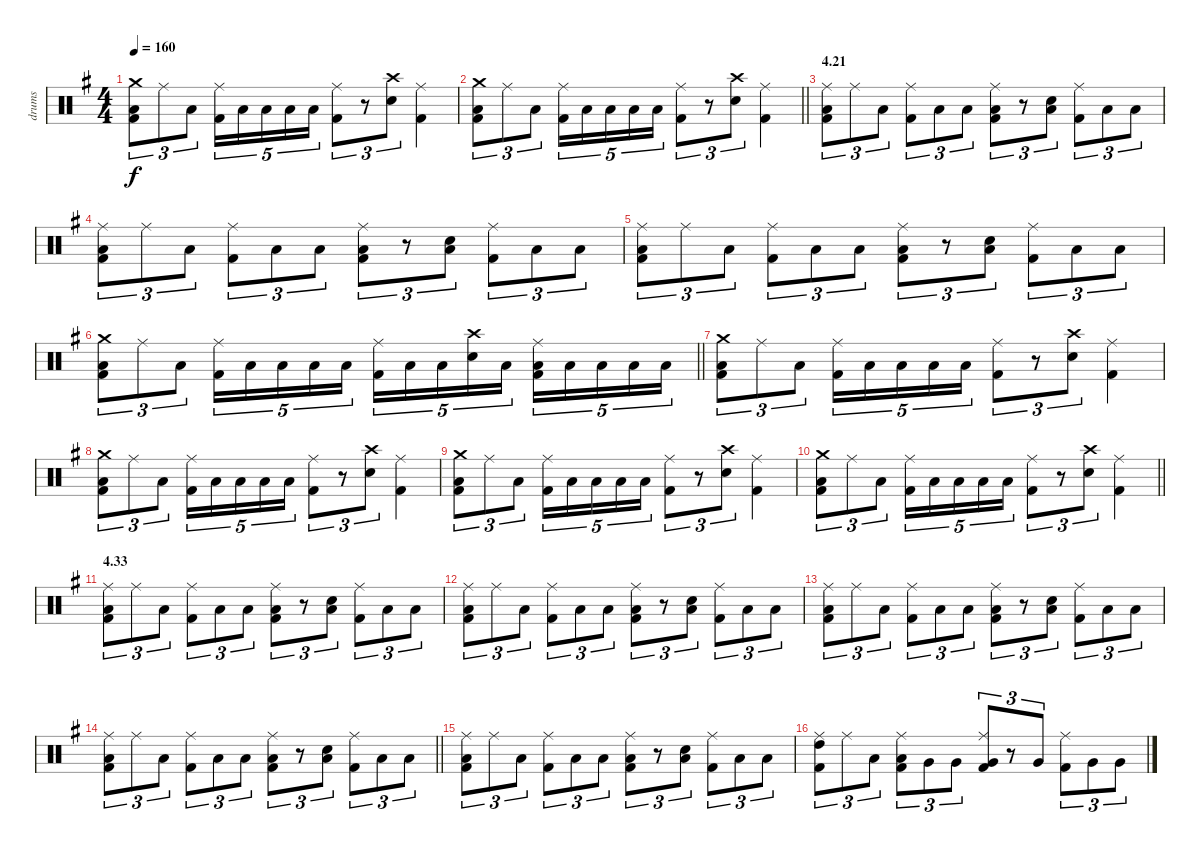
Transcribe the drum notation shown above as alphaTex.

\track ("drums" "drums") {instrument percussion}
\staff {score}
\articulation defaults
\ts (4 4)
\tempo 160
\clef neutral
\ks g
("Crash medium (hit)" "Low Tom (hit)" "Kick (hit) 2").8{tu (3 2) dy f} "Ride (middle)".8{tu (3 2)} "Low Tom (hit)".8{tu (3 2)} ("Ride (middle)" "Kick (hit) 2").16{tu (5 4)} "Low Tom (hit)".16{tu (5 4)} "Low Tom (hit)".16{tu (5 4)} "Low Tom (hit)".16{tu (5 4)} "Low Tom (hit)".16{tu (5 4)} ("Ride (middle)" "Kick (hit) 2").8{tu (3 2)} r.8{tu (3 2)} ("Crash high (hit)" "Electric Snare (hit)").8{tu (3 2)} ("Ride (middle)" "Kick (hit) 2").4 |
\barLineRight lightlight
("Crash medium (hit)" "Low Tom (hit)" "Kick (hit) 2").8{tu (3 2)} "Ride (middle)".8{tu (3 2)} "Low Tom (hit)".8{tu (3 2)} ("Ride (middle)" "Kick (hit) 2").16{tu (5 4)} "Low Tom (hit)".16{tu (5 4)} "Low Tom (hit)".16{tu (5 4)} "Low Tom (hit)".16{tu (5 4)} "Low Tom (hit)".16{tu (5 4)} ("Ride (middle)" "Kick (hit) 2").8{tu (3 2)} r.8{tu (3 2)} ("Crash high (hit)" "Electric Snare (hit)").8{tu (3 2)} ("Ride (middle)" "Kick (hit) 2").4 |
\section ("" "4.21")
("Ride (middle)" "Low Tom (hit)" "Kick (hit) 2").8{tu (3 2)} "Ride (middle)".8{tu (3 2)} "Low Tom (hit)".8{tu (3 2)} ("Ride (middle)" "Kick (hit) 2").8{tu (3 2)} "Low Tom (hit)".8{tu (3 2)} "Low Tom (hit)".8{tu (3 2)} ("Ride (middle)" "Low Tom (hit)" "Kick (hit) 2").8{tu (3 2)} r.8{tu (3 2)} ("Low Tom (hit)" "Electric Snare (hit)").8{tu (3 2)} ("Ride (middle)" "Kick (hit) 2").8{tu (3 2)} "Low Tom (hit)".8{tu (3 2)} "Low Tom (hit)".8{tu (3 2)} |
("Ride (middle)" "Low Tom (hit)" "Kick (hit) 2").8{tu (3 2)} "Ride (middle)".8{tu (3 2)} "Low Tom (hit)".8{tu (3 2)} ("Ride (middle)" "Kick (hit) 2").8{tu (3 2)} "Low Tom (hit)".8{tu (3 2)} "Low Tom (hit)".8{tu (3 2)} ("Ride (middle)" "Low Tom (hit)" "Kick (hit) 2").8{tu (3 2)} r.8{tu (3 2)} ("Low Tom (hit)" "Electric Snare (hit)").8{tu (3 2)} ("Ride (middle)" "Kick (hit) 2").8{tu (3 2)} "Low Tom (hit)".8{tu (3 2)} "Low Tom (hit)".8{tu (3 2)} |
("Ride (middle)" "Low Tom (hit)" "Kick (hit) 2").8{tu (3 2)} "Ride (middle)".8{tu (3 2)} "Low Tom (hit)".8{tu (3 2)} ("Ride (middle)" "Kick (hit) 2").8{tu (3 2)} "Low Tom (hit)".8{tu (3 2)} "Low Tom (hit)".8{tu (3 2)} ("Ride (middle)" "Low Tom (hit)" "Kick (hit) 2").8{tu (3 2)} r.8{tu (3 2)} ("Low Tom (hit)" "Electric Snare (hit)").8{tu (3 2)} ("Ride (middle)" "Kick (hit) 2").8{tu (3 2)} "Low Tom (hit)".8{tu (3 2)} "Low Tom (hit)".8{tu (3 2)} |
\barLineRight lightlight
("Crash medium (hit)" "Low Tom (hit)" "Kick (hit) 2").8{tu (3 2)} "Ride (middle)".8{tu (3 2)} "Low Tom (hit)".8{tu (3 2)} ("Ride (middle)" "Kick (hit) 2").16{tu (5 4)} "Low Tom (hit)".16{tu (5 4)} "Low Tom (hit)".16{tu (5 4)} "Low Tom (hit)".16{tu (5 4)} "Low Tom (hit)".16{tu (5 4)} ("Ride (middle)" "Kick (hit) 2").16{tu (5 4)} "Low Tom (hit)".16{tu (5 4)} "Low Tom (hit)".16{tu (5 4)} ("Crash high (hit)" "Electric Snare (hit)").16{tu (5 4)} "Low Tom (hit)".16{tu (5 4)} ("Ride (middle)" "Low Tom (hit)" "Kick (hit) 2").16{tu (5 4)} "Low Tom (hit)".16{tu (5 4)} "Low Tom (hit)".16{tu (5 4)} "Low Tom (hit)".16{tu (5 4)} "Low Tom (hit)".16{tu (5 4)} |
("Crash medium (hit)" "Low Tom (hit)" "Kick (hit) 2").8{tu (3 2)} "Ride (middle)".8{tu (3 2)} "Low Tom (hit)".8{tu (3 2)} ("Ride (middle)" "Kick (hit) 2").16{tu (5 4)} "Low Tom (hit)".16{tu (5 4)} "Low Tom (hit)".16{tu (5 4)} "Low Tom (hit)".16{tu (5 4)} "Low Tom (hit)".16{tu (5 4)} ("Ride (middle)" "Kick (hit) 2").8{tu (3 2)} r.8{tu (3 2)} ("Crash high (hit)" "Electric Snare (hit)").8{tu (3 2)} ("Ride (middle)" "Kick (hit) 2").4 |
("Crash medium (hit)" "Low Tom (hit)" "Kick (hit) 2").8{tu (3 2)} "Ride (middle)".8{tu (3 2)} "Low Tom (hit)".8{tu (3 2)} ("Ride (middle)" "Kick (hit) 2").16{tu (5 4)} "Low Tom (hit)".16{tu (5 4)} "Low Tom (hit)".16{tu (5 4)} "Low Tom (hit)".16{tu (5 4)} "Low Tom (hit)".16{tu (5 4)} ("Ride (middle)" "Kick (hit) 2").8{tu (3 2)} r.8{tu (3 2)} ("Crash high (hit)" "Electric Snare (hit)").8{tu (3 2)} ("Ride (middle)" "Kick (hit) 2").4 |
("Crash medium (hit)" "Low Tom (hit)" "Kick (hit) 2").8{tu (3 2)} "Ride (middle)".8{tu (3 2)} "Low Tom (hit)".8{tu (3 2)} ("Ride (middle)" "Kick (hit) 2").16{tu (5 4)} "Low Tom (hit)".16{tu (5 4)} "Low Tom (hit)".16{tu (5 4)} "Low Tom (hit)".16{tu (5 4)} "Low Tom (hit)".16{tu (5 4)} ("Ride (middle)" "Kick (hit) 2").8{tu (3 2)} r.8{tu (3 2)} ("Crash high (hit)" "Electric Snare (hit)").8{tu (3 2)} ("Ride (middle)" "Kick (hit) 2").4 |
\barLineRight lightlight
("Crash medium (hit)" "Low Tom (hit)" "Kick (hit) 2").8{tu (3 2)} "Ride (middle)".8{tu (3 2)} "Low Tom (hit)".8{tu (3 2)} ("Ride (middle)" "Kick (hit) 2").16{tu (5 4)} "Low Tom (hit)".16{tu (5 4)} "Low Tom (hit)".16{tu (5 4)} "Low Tom (hit)".16{tu (5 4)} "Low Tom (hit)".16{tu (5 4)} ("Ride (middle)" "Kick (hit) 2").8{tu (3 2)} r.8{tu (3 2)} ("Crash high (hit)" "Electric Snare (hit)").8{tu (3 2)} ("Ride (middle)" "Kick (hit) 2").4 |
\section ("" "4.33")
("Ride (middle)" "Low Tom (hit)" "Kick (hit) 2").8{tu (3 2)} "Ride (middle)".8{tu (3 2)} "Low Tom (hit)".8{tu (3 2)} ("Ride (middle)" "Kick (hit) 2").8{tu (3 2)} "Low Tom (hit)".8{tu (3 2)} "Low Tom (hit)".8{tu (3 2)} ("Ride (middle)" "Low Tom (hit)" "Kick (hit) 2").8{tu (3 2)} r.8{tu (3 2)} ("Low Tom (hit)" "Electric Snare (hit)").8{tu (3 2)} ("Ride (middle)" "Kick (hit) 2").8{tu (3 2)} "Low Tom (hit)".8{tu (3 2)} "Low Tom (hit)".8{tu (3 2)} |
("Ride (middle)" "Low Tom (hit)" "Kick (hit) 2").8{tu (3 2)} "Ride (middle)".8{tu (3 2)} "Low Tom (hit)".8{tu (3 2)} ("Ride (middle)" "Kick (hit) 2").8{tu (3 2)} "Low Tom (hit)".8{tu (3 2)} "Low Tom (hit)".8{tu (3 2)} ("Ride (middle)" "Low Tom (hit)" "Kick (hit) 2").8{tu (3 2)} r.8{tu (3 2)} ("Low Tom (hit)" "Electric Snare (hit)").8{tu (3 2)} ("Ride (middle)" "Kick (hit) 2").8{tu (3 2)} "Low Tom (hit)".8{tu (3 2)} "Low Tom (hit)".8{tu (3 2)} |
("Ride (middle)" "Low Tom (hit)" "Kick (hit) 2").8{tu (3 2)} "Ride (middle)".8{tu (3 2)} "Low Tom (hit)".8{tu (3 2)} ("Ride (middle)" "Kick (hit) 2").8{tu (3 2)} "Low Tom (hit)".8{tu (3 2)} "Low Tom (hit)".8{tu (3 2)} ("Ride (middle)" "Low Tom (hit)" "Kick (hit) 2").8{tu (3 2)} r.8{tu (3 2)} ("Low Tom (hit)" "Electric Snare (hit)").8{tu (3 2)} ("Ride (middle)" "Kick (hit) 2").8{tu (3 2)} "Low Tom (hit)".8{tu (3 2)} "Low Tom (hit)".8{tu (3 2)} |
\barLineRight lightlight
("Ride (middle)" "Low Tom (hit)" "Kick (hit) 2").8{tu (3 2)} "Ride (middle)".8{tu (3 2)} "Low Tom (hit)".8{tu (3 2)} ("Ride (middle)" "Kick (hit) 2").8{tu (3 2)} "Low Tom (hit)".8{tu (3 2)} "Low Tom (hit)".8{tu (3 2)} ("Ride (middle)" "Low Tom (hit)" "Kick (hit) 2").8{tu (3 2)} r.8{tu (3 2)} ("Low Tom (hit)" "Electric Snare (hit)").8{tu (3 2)} ("Ride (middle)" "Kick (hit) 2").8{tu (3 2)} "Low Tom (hit)".8{tu (3 2)} "Low Tom (hit)".8{tu (3 2)} |
("Ride (middle)" "Low Tom (hit)" "Kick (hit) 2").8{tu (3 2)} "Ride (middle)".8{tu (3 2)} "Low Tom (hit)".8{tu (3 2)} ("Ride (middle)" "Kick (hit) 2").8{tu (3 2)} "Low Tom (hit)".8{tu (3 2)} "Low Tom (hit)".8{tu (3 2)} ("Ride (middle)" "Low Tom (hit)" "Kick (hit) 2").8{tu (3 2)} r.8{tu (3 2)} ("Low Tom (hit)" "Electric Snare (hit)").8{tu (3 2)} ("Ride (middle)" "Kick (hit) 2").8{tu (3 2)} "Low Tom (hit)".8{tu (3 2)} "Low Tom (hit)".8{tu (3 2)} |
("Ride (middle)" "High Tom (hit)" "Kick (hit) 2").8{tu (3 2)} "Ride (middle)".8{tu (3 2)} "Low Tom (hit)".8{tu (3 2)} ("Ride (middle)" "Low Tom (hit)" "Kick (hit) 2").8{tu (3 2)} "Very Low Tom (hit)".8{tu (3 2)} "Very Low Tom (hit)".8{tu (3 2)} ("Ride (middle)" "Very Low Tom (hit)" "Kick (hit) 2").8{tu (3 2)} r.8{tu (3 2)} "Very Low Tom (hit)".8{tu (3 2)} ("Ride (middle)" "Kick (hit) 2").8{tu (3 2)} "Very Low Tom (hit)".8{tu (3 2)} "Very Low Tom (hit)".8{tu (3 2)}
